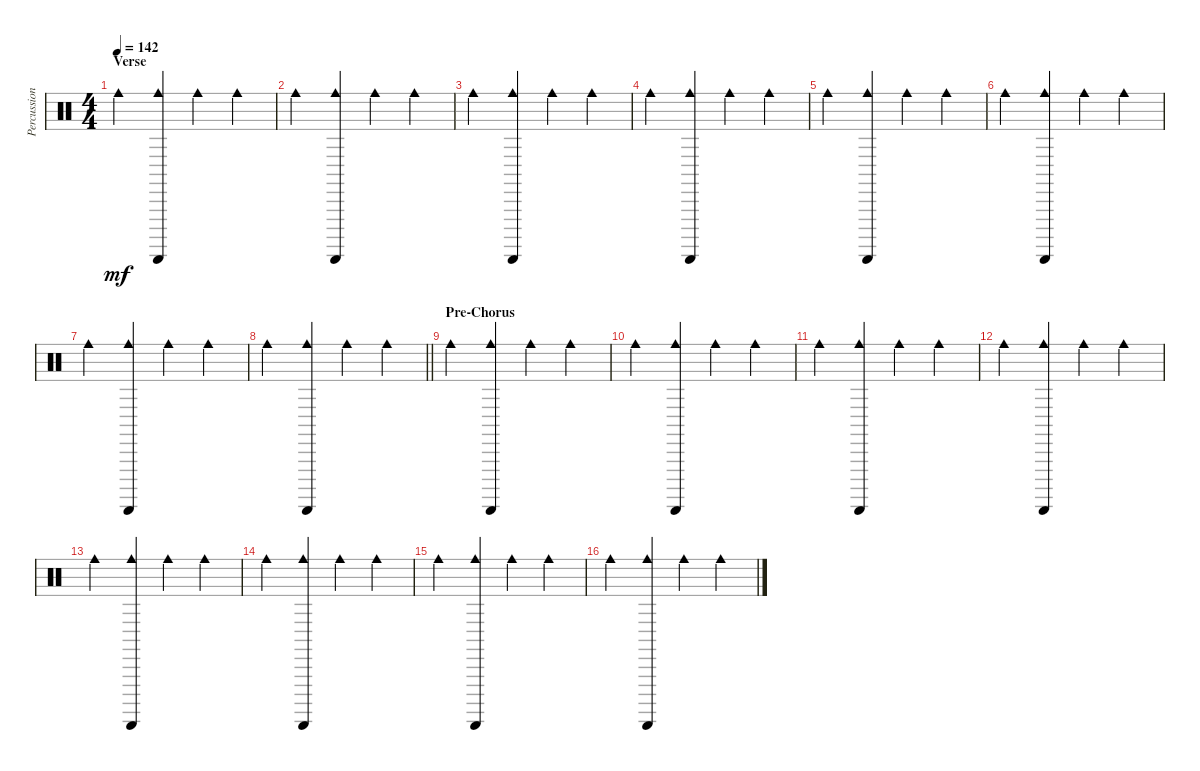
\track ("Percussion" "Percussion") {instrument percussion}
\staff {score}
\articulation defaults
\ts (4 4)
\section ("" "Verse")
\tempo 142
\clef neutral
\ks c "Cowbell medium (hit)".4{dy mf}
("Guiro (scrap-return)" "Cowbell medium (hit)").4 "Cowbell medium (hit)".4 "Cowbell medium (hit)".4 |
"Cowbell medium (hit)".4 ("Guiro (scrap-return)" "Cowbell medium (hit)").4 "Cowbell medium (hit)".4 "Cowbell medium (hit)".4 |
"Cowbell medium (hit)".4 ("Guiro (scrap-return)" "Cowbell medium (hit)").4 "Cowbell medium (hit)".4 "Cowbell medium (hit)".4 |
"Cowbell medium (hit)".4 ("Guiro (scrap-return)" "Cowbell medium (hit)").4 "Cowbell medium (hit)".4 "Cowbell medium (hit)".4 |
"Cowbell medium (hit)".4 ("Guiro (scrap-return)" "Cowbell medium (hit)").4 "Cowbell medium (hit)".4 "Cowbell medium (hit)".4 |
"Cowbell medium (hit)".4 ("Guiro (scrap-return)" "Cowbell medium (hit)").4 "Cowbell medium (hit)".4 "Cowbell medium (hit)".4 |
"Cowbell medium (hit)".4 ("Guiro (scrap-return)" "Cowbell medium (hit)").4 "Cowbell medium (hit)".4 "Cowbell medium (hit)".4 |
\barLineRight lightlight "Cowbell medium (hit)".4
("Guiro (scrap-return)" "Cowbell medium (hit)").4 "Cowbell medium (hit)".4 "Cowbell medium (hit)".4 |
\section ("" "Pre-Chorus")
"Cowbell medium (hit)".4 ("Guiro (scrap-return)" "Cowbell medium (hit)").4 "Cowbell medium (hit)".4 "Cowbell medium (hit)".4 |
"Cowbell medium (hit)".4 ("Guiro (scrap-return)" "Cowbell medium (hit)").4 "Cowbell medium (hit)".4 "Cowbell medium (hit)".4 |
"Cowbell medium (hit)".4 ("Guiro (scrap-return)" "Cowbell medium (hit)").4 "Cowbell medium (hit)".4 "Cowbell medium (hit)".4 |
"Cowbell medium (hit)".4 ("Guiro (scrap-return)" "Cowbell medium (hit)").4 "Cowbell medium (hit)".4 "Cowbell medium (hit)".4 |
"Cowbell medium (hit)".4 ("Guiro (scrap-return)" "Cowbell medium (hit)").4 "Cowbell medium (hit)".4 "Cowbell medium (hit)".4 |
"Cowbell medium (hit)".4 ("Guiro (scrap-return)" "Cowbell medium (hit)").4 "Cowbell medium (hit)".4 "Cowbell medium (hit)".4 |
"Cowbell medium (hit)".4 ("Guiro (scrap-return)" "Cowbell medium (hit)").4 "Cowbell medium (hit)".4 "Cowbell medium (hit)".4 |
"Cowbell medium (hit)".4 ("Guiro (scrap-return)" "Cowbell medium (hit)").4 "Cowbell medium (hit)".4 "Cowbell medium (hit)".4
